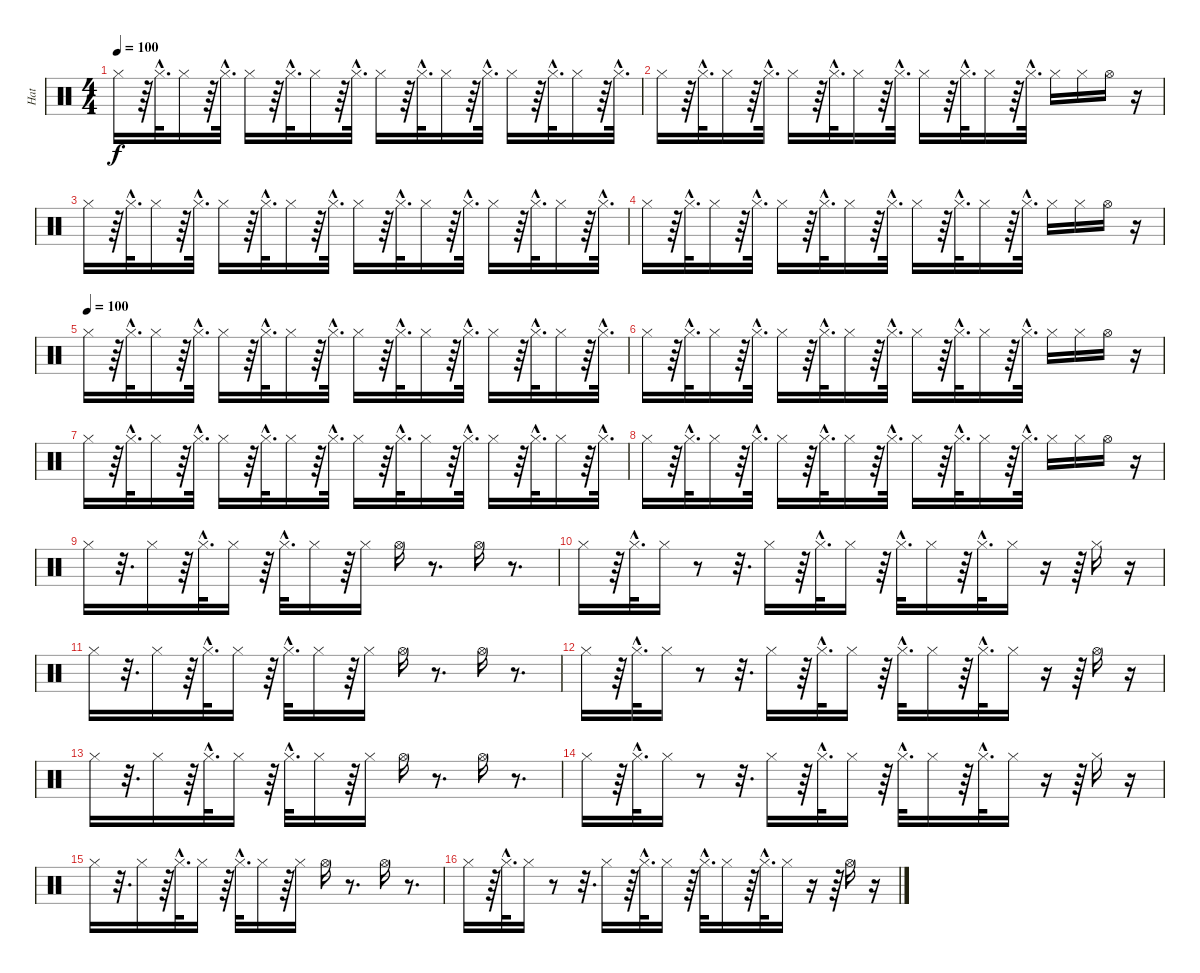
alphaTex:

\track ("Hat" "Hat") {instrument percussion}
\staff {score}
\articulation defaults
\ts (4 4)
\tempo 100
\clef neutral
\ks c "Hi-Hat (closed)".16{dy f}
r.64 "Hi-Hat (closed)"{hac}.32{d} "Hi-Hat (closed)".16 r.64 "Hi-Hat (closed)"{hac}.32{d} "Hi-Hat (closed)".16 r.64 "Hi-Hat (closed)"{hac}.32{d} "Hi-Hat (closed)".16 r.64 "Hi-Hat (closed)"{hac}.32{d} "Hi-Hat (closed)".16 r.64 "Hi-Hat (closed)"{hac}.32{d} "Hi-Hat (closed)".16 r.64 "Hi-Hat (closed)"{hac}.32{d} "Hi-Hat (closed)".16 r.64 "Hi-Hat (closed)"{hac}.32{d} "Hi-Hat (closed)".16 r.64 "Hi-Hat (closed)"{hac}.32{d} |
"Hi-Hat (closed)".16 r.64 "Hi-Hat (closed)"{hac}.32{d} "Hi-Hat (closed)".16 r.64 "Hi-Hat (closed)"{hac}.32{d} "Hi-Hat (closed)".16 r.64 "Hi-Hat (closed)"{hac}.32{d} "Hi-Hat (closed)".16 r.64 "Hi-Hat (closed)"{hac}.32{d} "Hi-Hat (closed)".16 r.64 "Hi-Hat (closed)"{hac}.32{d} "Hi-Hat (closed)".16 r.64 "Hi-Hat (closed)"{hac}.32{d} "Hi-Hat (closed)".16 "Hi-Hat (closed)".16 "Hi-Hat (open)".16 r.16 |
"Hi-Hat (closed)".16 r.64 "Hi-Hat (closed)"{hac}.32{d} "Hi-Hat (closed)".16 r.64 "Hi-Hat (closed)"{hac}.32{d} "Hi-Hat (closed)".16 r.64 "Hi-Hat (closed)"{hac}.32{d} "Hi-Hat (closed)".16 r.64 "Hi-Hat (closed)"{hac}.32{d} "Hi-Hat (closed)".16 r.64 "Hi-Hat (closed)"{hac}.32{d} "Hi-Hat (closed)".16 r.64 "Hi-Hat (closed)"{hac}.32{d} "Hi-Hat (closed)".16 r.64 "Hi-Hat (closed)"{hac}.32{d} "Hi-Hat (closed)".16 r.64 "Hi-Hat (closed)"{hac}.32{d} |
"Hi-Hat (closed)".16 r.64 "Hi-Hat (closed)"{hac}.32{d} "Hi-Hat (closed)".16 r.64 "Hi-Hat (closed)"{hac}.32{d} "Hi-Hat (closed)".16 r.64 "Hi-Hat (closed)"{hac}.32{d} "Hi-Hat (closed)".16 r.64 "Hi-Hat (closed)"{hac}.32{d} "Hi-Hat (closed)".16 r.64 "Hi-Hat (closed)"{hac}.32{d} "Hi-Hat (closed)".16 r.64 "Hi-Hat (closed)"{hac}.32{d} "Hi-Hat (closed)".16 "Hi-Hat (closed)".16 "Hi-Hat (open)".16 r.16 |
\tempo (100)
"Hi-Hat (closed)".16 r.64 "Hi-Hat (closed)"{hac}.32{d} "Hi-Hat (closed)".16 r.64 "Hi-Hat (closed)"{hac}.32{d} "Hi-Hat (closed)".16 r.64 "Hi-Hat (closed)"{hac}.32{d} "Hi-Hat (closed)".16 r.64 "Hi-Hat (closed)"{hac}.32{d} "Hi-Hat (closed)".16 r.64 "Hi-Hat (closed)"{hac}.32{d} "Hi-Hat (closed)".16 r.64 "Hi-Hat (closed)"{hac}.32{d} "Hi-Hat (closed)".16 r.64 "Hi-Hat (closed)"{hac}.32{d} "Hi-Hat (closed)".16 r.64 "Hi-Hat (closed)"{hac}.32{d} |
"Hi-Hat (closed)".16 r.64 "Hi-Hat (closed)"{hac}.32{d} "Hi-Hat (closed)".16 r.64 "Hi-Hat (closed)"{hac}.32{d} "Hi-Hat (closed)".16 r.64 "Hi-Hat (closed)"{hac}.32{d} "Hi-Hat (closed)".16 r.64 "Hi-Hat (closed)"{hac}.32{d} "Hi-Hat (closed)".16 r.64 "Hi-Hat (closed)"{hac}.32{d} "Hi-Hat (closed)".16 r.64 "Hi-Hat (closed)"{hac}.32{d} "Hi-Hat (closed)".16 "Hi-Hat (closed)".16 "Hi-Hat (open)".16 r.16 |
"Hi-Hat (closed)".16 r.64 "Hi-Hat (closed)"{hac}.32{d} "Hi-Hat (closed)".16 r.64 "Hi-Hat (closed)"{hac}.32{d} "Hi-Hat (closed)".16 r.64 "Hi-Hat (closed)"{hac}.32{d} "Hi-Hat (closed)".16 r.64 "Hi-Hat (closed)"{hac}.32{d} "Hi-Hat (closed)".16 r.64 "Hi-Hat (closed)"{hac}.32{d} "Hi-Hat (closed)".16 r.64 "Hi-Hat (closed)"{hac}.32{d} "Hi-Hat (closed)".16 r.64 "Hi-Hat (closed)"{hac}.32{d} "Hi-Hat (closed)".16 r.64 "Hi-Hat (closed)"{hac}.32{d} |
"Hi-Hat (closed)".16 r.64 "Hi-Hat (closed)"{hac}.32{d} "Hi-Hat (closed)".16 r.64 "Hi-Hat (closed)"{hac}.32{d} "Hi-Hat (closed)".16 r.64 "Hi-Hat (closed)"{hac}.32{d} "Hi-Hat (closed)".16 r.64 "Hi-Hat (closed)"{hac}.32{d} "Hi-Hat (closed)".16 r.64 "Hi-Hat (closed)"{hac}.32{d} "Hi-Hat (closed)".16 r.64 "Hi-Hat (closed)"{hac}.32{d} "Hi-Hat (closed)".16 "Hi-Hat (closed)".16 "Hi-Hat (open)".16 r.16 |
"Hi-Hat (closed)".16 r.32{d} "Hi-Hat (closed)".16 r.64 "Hi-Hat (closed)"{hac}.32{d} "Hi-Hat (closed)".16 r.64 "Hi-Hat (closed)"{hac}.32{d} "Hi-Hat (closed)".16 r.64 "Hi-Hat (closed)".16 "Hi-Hat (open)".16 r.8{d} "Hi-Hat (open)".16 r.8{d} |
"Hi-Hat (closed)".16 r.64 "Hi-Hat (closed)"{hac}.32{d} "Hi-Hat (closed)".16 r.8 r.32{d} "Hi-Hat (closed)".16 r.64 "Hi-Hat (closed)"{hac}.32{d} "Hi-Hat (closed)".16 r.64 "Hi-Hat (closed)"{hac}.32{d} "Hi-Hat (closed)".16 r.64 "Hi-Hat (closed)"{hac}.32{d} "Hi-Hat (closed)".16 r.16 r.64 "Hi-Hat (closed)".16 r.16 |
"Hi-Hat (closed)".16 r.32{d} "Hi-Hat (closed)".16 r.64 "Hi-Hat (closed)"{hac}.32{d} "Hi-Hat (closed)".16 r.64 "Hi-Hat (closed)"{hac}.32{d} "Hi-Hat (closed)".16 r.64 "Hi-Hat (closed)".16 "Hi-Hat (open)".16 r.8{d} "Hi-Hat (open)".16 r.8{d} |
"Hi-Hat (closed)".16 r.64 "Hi-Hat (closed)"{hac}.32{d} "Hi-Hat (closed)".16 r.8 r.32{d} "Hi-Hat (closed)".16 r.64 "Hi-Hat (closed)"{hac}.32{d} "Hi-Hat (closed)".16 r.64 "Hi-Hat (closed)"{hac}.32{d} "Hi-Hat (closed)".16 r.64 "Hi-Hat (closed)"{hac}.32{d} "Hi-Hat (closed)".16 r.16 r.64 "Hi-Hat (open)".16 r.16 |
"Hi-Hat (closed)".16 r.32{d} "Hi-Hat (closed)".16 r.64 "Hi-Hat (closed)"{hac}.32{d} "Hi-Hat (closed)".16 r.64 "Hi-Hat (closed)"{hac}.32{d} "Hi-Hat (closed)".16 r.64 "Hi-Hat (closed)".16 "Hi-Hat (open)".16 r.8{d} "Hi-Hat (open)".16 r.8{d} |
"Hi-Hat (closed)".16 r.64 "Hi-Hat (closed)"{hac}.32{d} "Hi-Hat (closed)".16 r.8 r.32{d} "Hi-Hat (closed)".16 r.64 "Hi-Hat (closed)"{hac}.32{d} "Hi-Hat (closed)".16 r.64 "Hi-Hat (closed)"{hac}.32{d} "Hi-Hat (closed)".16 r.64 "Hi-Hat (closed)"{hac}.32{d} "Hi-Hat (closed)".16 r.16 r.64 "Hi-Hat (closed)".16 r.16 |
"Hi-Hat (closed)".16 r.32{d} "Hi-Hat (closed)".16 r.64 "Hi-Hat (closed)"{hac}.32{d} "Hi-Hat (closed)".16 r.64 "Hi-Hat (closed)"{hac}.32{d} "Hi-Hat (closed)".16 r.64 "Hi-Hat (closed)".16 "Hi-Hat (open)".16 r.8{d} "Hi-Hat (open)".16 r.8{d} |
"Hi-Hat (closed)".16 r.64 "Hi-Hat (closed)"{hac}.32{d} "Hi-Hat (closed)".16 r.8 r.32{d} "Hi-Hat (closed)".16 r.64 "Hi-Hat (closed)"{hac}.32{d} "Hi-Hat (closed)".16 r.64 "Hi-Hat (closed)"{hac}.32{d} "Hi-Hat (closed)".16 r.64 "Hi-Hat (closed)"{hac}.32{d} "Hi-Hat (closed)".16 r.16 r.64 "Hi-Hat (open)".16 r.16
